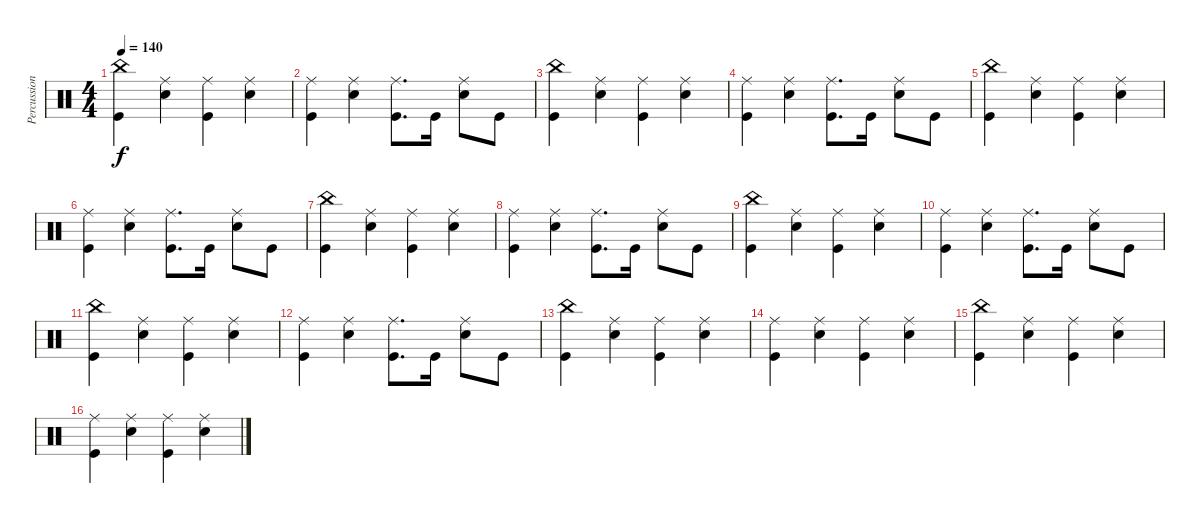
\track ("Percussion" "Percussion") {instrument percussion}
\staff {score}
\articulation defaults
\ts (4 4)
\tempo 140
\clef neutral
\ks c
("China (hit)" "Kick (hit)").4{dy f} ("Ride (middle)" "Electric Snare (hit)").4 ("Ride (middle)" "Kick (hit)").4 ("Ride (middle)" "Electric Snare (hit)").4 |
("Ride (middle)" "Kick (hit)").4 ("Ride (middle)" "Electric Snare (hit)").4 ("Ride (middle)" "Kick (hit)").8{d} "Kick (hit)".16 ("Ride (middle)" "Electric Snare (hit)").8 "Kick (hit)".8 |
("China (hit)" "Kick (hit)").4 ("Ride (middle)" "Electric Snare (hit)").4 ("Ride (middle)" "Kick (hit)").4 ("Ride (middle)" "Electric Snare (hit)").4 |
("Ride (middle)" "Kick (hit)").4 ("Ride (middle)" "Electric Snare (hit)").4 ("Ride (middle)" "Kick (hit)").8{d} "Kick (hit)".16 ("Ride (middle)" "Electric Snare (hit)").8 "Kick (hit)".8 |
("China (hit)" "Kick (hit)").4 ("Ride (middle)" "Electric Snare (hit)").4 ("Ride (middle)" "Kick (hit)").4 ("Ride (middle)" "Electric Snare (hit)").4 |
("Ride (middle)" "Kick (hit)").4 ("Ride (middle)" "Electric Snare (hit)").4 ("Ride (middle)" "Kick (hit)").8{d} "Kick (hit)".16 ("Ride (middle)" "Electric Snare (hit)").8 "Kick (hit)".8 |
("China (hit)" "Kick (hit)").4 ("Ride (middle)" "Electric Snare (hit)").4 ("Ride (middle)" "Kick (hit)").4 ("Ride (middle)" "Electric Snare (hit)").4 |
("Ride (middle)" "Kick (hit)").4 ("Ride (middle)" "Electric Snare (hit)").4 ("Ride (middle)" "Kick (hit)").8{d} "Kick (hit)".16 ("Ride (middle)" "Electric Snare (hit)").8 "Kick (hit)".8 |
("China (hit)" "Kick (hit)").4 ("Ride (middle)" "Electric Snare (hit)").4 ("Ride (middle)" "Kick (hit)").4 ("Ride (middle)" "Electric Snare (hit)").4 |
("Ride (middle)" "Kick (hit)").4 ("Ride (middle)" "Electric Snare (hit)").4 ("Ride (middle)" "Kick (hit)").8{d} "Kick (hit)".16 ("Ride (middle)" "Electric Snare (hit)").8 "Kick (hit)".8 |
("China (hit)" "Kick (hit)").4 ("Ride (middle)" "Electric Snare (hit)").4 ("Ride (middle)" "Kick (hit)").4 ("Ride (middle)" "Electric Snare (hit)").4 |
("Ride (middle)" "Kick (hit)").4 ("Ride (middle)" "Electric Snare (hit)").4 ("Ride (middle)" "Kick (hit)").8{d} "Kick (hit)".16 ("Ride (middle)" "Electric Snare (hit)").8 "Kick (hit)".8 |
("China (hit)" "Kick (hit)").4 ("Ride (middle)" "Electric Snare (hit)").4 ("Ride (middle)" "Kick (hit)").4 ("Ride (middle)" "Electric Snare (hit)").4 |
("Ride (middle)" "Kick (hit)").4 ("Ride (middle)" "Electric Snare (hit)").4 ("Ride (middle)" "Kick (hit)").4 ("Ride (middle)" "Electric Snare (hit)").4 |
("China (hit)" "Kick (hit)").4 ("Ride (middle)" "Electric Snare (hit)").4 ("Ride (middle)" "Kick (hit)").4 ("Ride (middle)" "Electric Snare (hit)").4 |
("Ride (middle)" "Kick (hit)").4 ("Ride (middle)" "Electric Snare (hit)").4 ("Ride (middle)" "Kick (hit)").4 ("Ride (middle)" "Electric Snare (hit)").4
